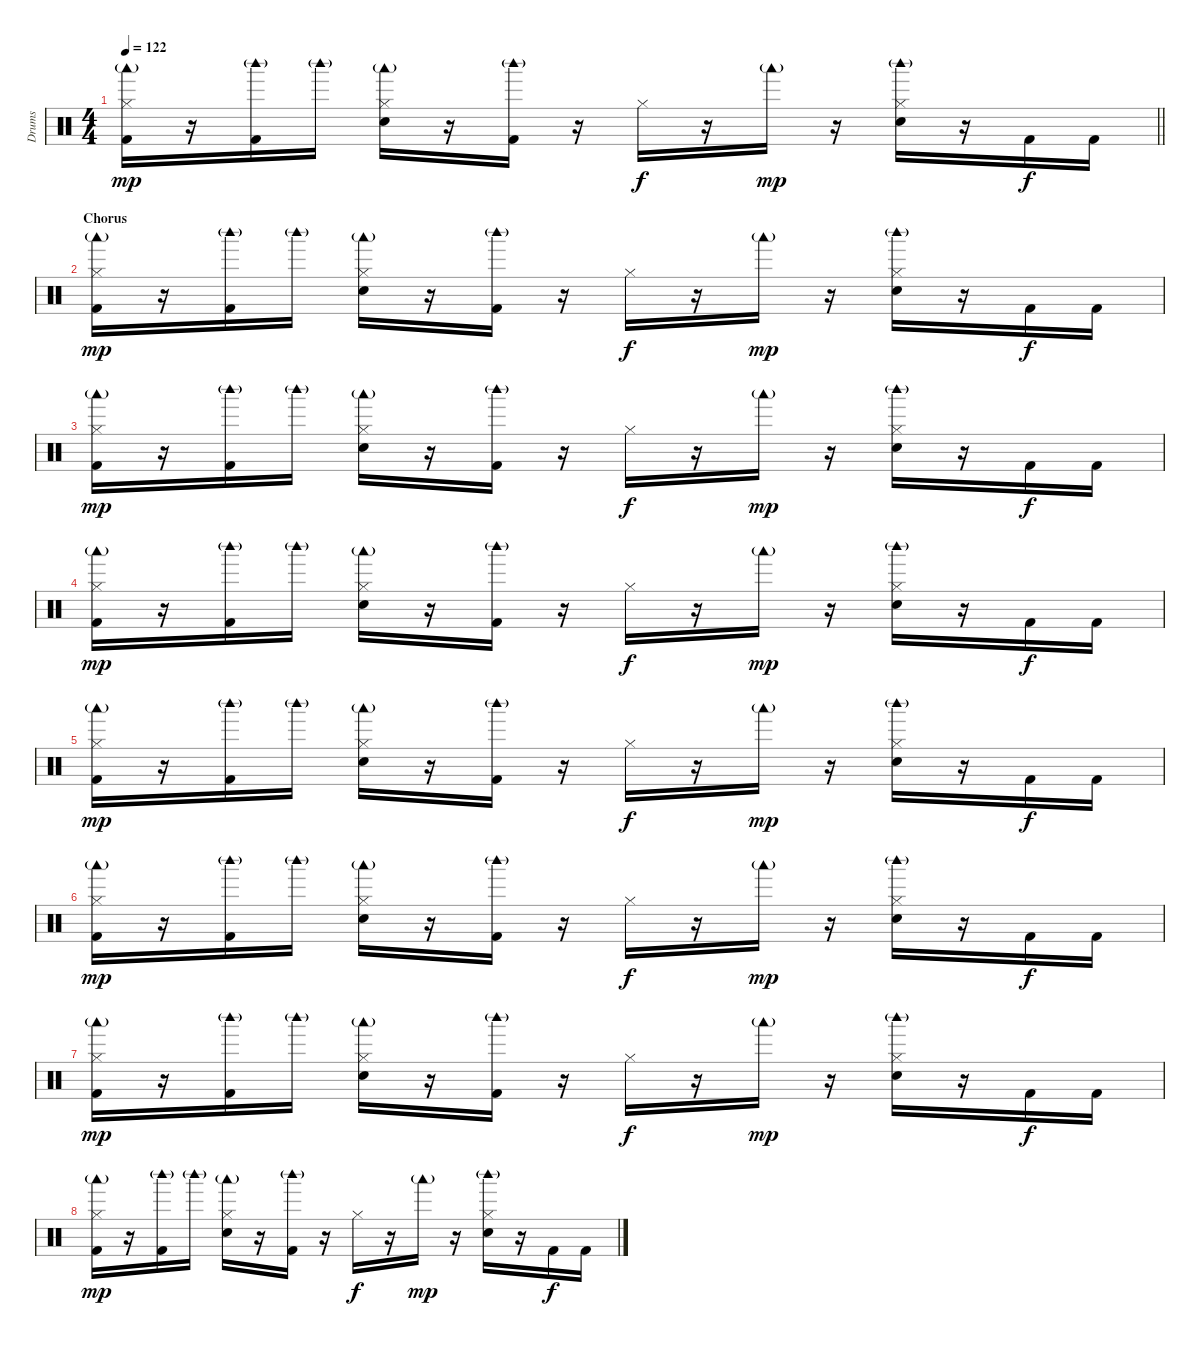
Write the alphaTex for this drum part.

\track ("Drums" "Drums") {instrument percussion}
\staff {score}
\articulation defaults
\ts (4 4)
\tempo 122
\clef neutral
\barLineRight lightlight
\ks c
("Hi-Hat (closed)" "Woodblock low (hit)"{g} "Kick (hit) 2").16{dy mp} r.16 ("Woodblock high (hit)"{g} "Kick (hit) 2").16 "Woodblock high (hit)"{g}.16 ("Hi-Hat (closed)" "Hand Clap (hit)" "Woodblock low (hit)"{g}).16 r.16 ("Woodblock high (hit)"{g} "Kick (hit) 2").16 r.16 "Hi-Hat (closed)".16{dy f} r.16 "Woodblock low (hit)"{g}.16{dy mp} r.16 ("Hi-Hat (closed)" "Hand Clap (hit)" "Woodblock high (hit)"{g}).16 r.16 "Kick (hit) 2".16{dy f} "Kick (hit) 2".16 |
\section ("" "Chorus")
("Hi-Hat (closed)" "Woodblock low (hit)"{g} "Kick (hit) 2").16{dy mp} r.16 ("Woodblock high (hit)"{g} "Kick (hit) 2").16 "Woodblock high (hit)"{g}.16 ("Hi-Hat (closed)" "Hand Clap (hit)" "Woodblock low (hit)"{g}).16 r.16 ("Woodblock high (hit)"{g} "Kick (hit) 2").16 r.16 "Hi-Hat (closed)".16{dy f} r.16 "Woodblock low (hit)"{g}.16{dy mp} r.16 ("Hi-Hat (closed)" "Hand Clap (hit)" "Woodblock high (hit)"{g}).16 r.16 "Kick (hit) 2".16{dy f} "Kick (hit) 2".16 |
("Hi-Hat (closed)" "Woodblock low (hit)"{g} "Kick (hit) 2").16{dy mp} r.16 ("Woodblock high (hit)"{g} "Kick (hit) 2").16 "Woodblock high (hit)"{g}.16 ("Hi-Hat (closed)" "Hand Clap (hit)" "Woodblock low (hit)"{g}).16 r.16 ("Woodblock high (hit)"{g} "Kick (hit) 2").16 r.16 "Hi-Hat (closed)".16{dy f} r.16 "Woodblock low (hit)"{g}.16{dy mp} r.16 ("Hi-Hat (closed)" "Hand Clap (hit)" "Woodblock high (hit)"{g}).16 r.16 "Kick (hit) 2".16{dy f} "Kick (hit) 2".16 |
("Hi-Hat (closed)" "Woodblock low (hit)"{g} "Kick (hit) 2").16{dy mp} r.16 ("Woodblock high (hit)"{g} "Kick (hit) 2").16 "Woodblock high (hit)"{g}.16 ("Hi-Hat (closed)" "Hand Clap (hit)" "Woodblock low (hit)"{g}).16 r.16 ("Woodblock high (hit)"{g} "Kick (hit) 2").16 r.16 "Hi-Hat (closed)".16{dy f} r.16 "Woodblock low (hit)"{g}.16{dy mp} r.16 ("Hi-Hat (closed)" "Hand Clap (hit)" "Woodblock high (hit)"{g}).16 r.16 "Kick (hit) 2".16{dy f} "Kick (hit) 2".16 |
("Hi-Hat (closed)" "Woodblock low (hit)"{g} "Kick (hit) 2").16{dy mp} r.16 ("Woodblock high (hit)"{g} "Kick (hit) 2").16 "Woodblock high (hit)"{g}.16 ("Hi-Hat (closed)" "Hand Clap (hit)" "Woodblock low (hit)"{g}).16 r.16 ("Woodblock high (hit)"{g} "Kick (hit) 2").16 r.16 "Hi-Hat (closed)".16{dy f} r.16 "Woodblock low (hit)"{g}.16{dy mp} r.16 ("Hi-Hat (closed)" "Hand Clap (hit)" "Woodblock high (hit)"{g}).16 r.16 "Kick (hit) 2".16{dy f} "Kick (hit) 2".16 |
("Hi-Hat (closed)" "Woodblock low (hit)"{g} "Kick (hit) 2").16{dy mp} r.16 ("Woodblock high (hit)"{g} "Kick (hit) 2").16 "Woodblock high (hit)"{g}.16 ("Hi-Hat (closed)" "Hand Clap (hit)" "Woodblock low (hit)"{g}).16 r.16 ("Woodblock high (hit)"{g} "Kick (hit) 2").16 r.16 "Hi-Hat (closed)".16{dy f} r.16 "Woodblock low (hit)"{g}.16{dy mp} r.16 ("Hi-Hat (closed)" "Hand Clap (hit)" "Woodblock high (hit)"{g}).16 r.16 "Kick (hit) 2".16{dy f} "Kick (hit) 2".16 |
("Hi-Hat (closed)" "Woodblock low (hit)"{g} "Kick (hit) 2").16{dy mp} r.16 ("Woodblock high (hit)"{g} "Kick (hit) 2").16 "Woodblock high (hit)"{g}.16 ("Hi-Hat (closed)" "Hand Clap (hit)" "Woodblock low (hit)"{g}).16 r.16 ("Woodblock high (hit)"{g} "Kick (hit) 2").16 r.16 "Hi-Hat (closed)".16{dy f} r.16 "Woodblock low (hit)"{g}.16{dy mp} r.16 ("Hi-Hat (closed)" "Hand Clap (hit)" "Woodblock high (hit)"{g}).16 r.16 "Kick (hit) 2".16{dy f} "Kick (hit) 2".16 |
("Hi-Hat (closed)" "Woodblock low (hit)"{g} "Kick (hit) 2").16{dy mp} r.16 ("Woodblock high (hit)"{g} "Kick (hit) 2").16 "Woodblock high (hit)"{g}.16 ("Hi-Hat (closed)" "Hand Clap (hit)" "Woodblock low (hit)"{g}).16 r.16 ("Woodblock high (hit)"{g} "Kick (hit) 2").16 r.16 "Hi-Hat (closed)".16{dy f} r.16 "Woodblock low (hit)"{g}.16{dy mp} r.16 ("Hi-Hat (closed)" "Hand Clap (hit)" "Woodblock high (hit)"{g}).16 r.16 "Kick (hit) 2".16{dy f} "Kick (hit) 2".16
